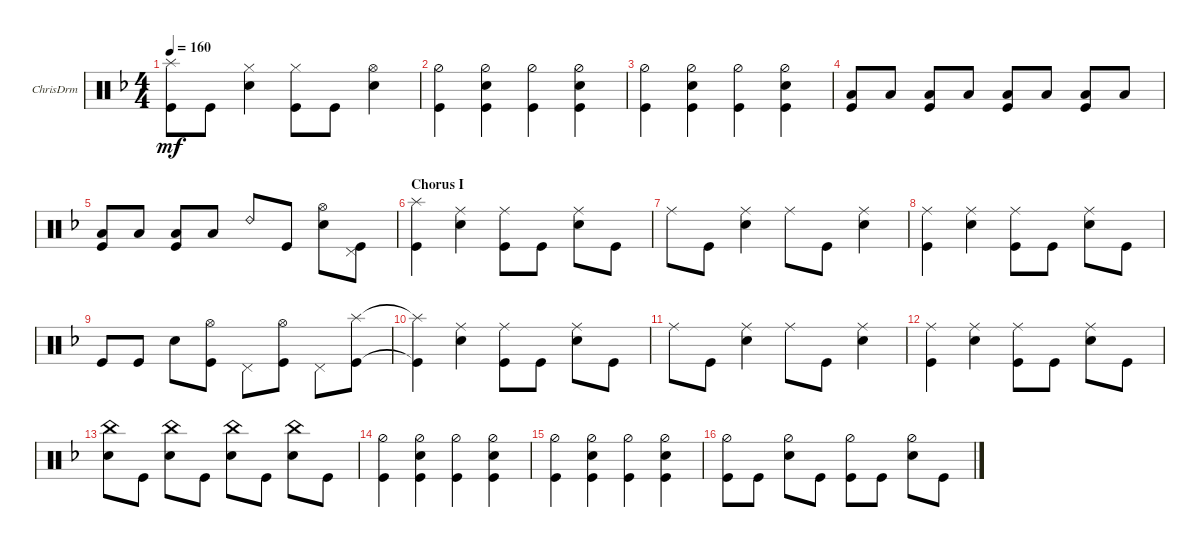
\defaultSystemsLayout 4
\bracketExtendMode groupsimilarinstruments
\firstSystemTrackNameOrientation horizontal
\otherSystemsTrackNameOrientation horizontal
\track ("Drumkit" "ChrisDrm") {instrument percussion}
\staff {score}
\articulation defaults
\ts (4 4)
\tempo 160
\clef neutral
\ks dminor
("Kick (hit)"{t} "Splash (hit)"{t}).8{dy mf} "Kick (hit)".8 ("Snare (hit) 2" "Hi-Hat (closed)").4 ("Kick (hit)" "Hi-Hat (closed)").8 "Kick (hit)".8 ("Snare (hit) 2" "Hi-Hat (open)").4 |
("Hi-Hat (half)" "Kick (hit)").4 ("Hi-Hat (half)" "Snare (hit) 2" "Kick (hit)").4 ("Hi-Hat (half)" "Kick (hit)").4 ("Hi-Hat (half)" "Snare (hit) 2" "Kick (hit)").4 |
("Hi-Hat (half)" "Kick (hit)").4 ("Hi-Hat (half)" "Kick (hit)" "Snare (hit) 2").4 ("Hi-Hat (half)" "Kick (hit)").4 ("Hi-Hat (half)" "Kick (hit)" "Snare (hit) 2").4 |
("Kick (hit)" "Low Tom (hit)").8 "Low Tom (hit)".8 ("Low Tom (hit)" "Kick (hit)").8 "Low Tom (hit)".8 ("Low Tom (hit)" "Kick (hit)").8 "Low Tom (hit)".8 ("Low Tom (hit)" "Kick (hit)").8 "Low Tom (hit)".8 |
("Kick (hit)" "Low Tom (hit)").8 "Low Tom (hit)".8 ("Low Tom (hit)" "Kick (hit)").8 "Low Tom (hit)".8 "Ride (bell) 2".8 "Kick (hit)".8 ("Snare (hit) 2" "Hi-Hat (open)").8 ("Kick (hit)" "Pedal Hi-Hat (hit)").8 |
\section ("" "Chorus I")
("Splash (hit)" "Kick (hit)").4 ("Snare (hit) 2" "Ride (middle)").4 ("Kick (hit)" "Ride (middle)").8 "Kick (hit)".8 ("Snare (hit) 2" "Ride (middle)").8 "Kick (hit)".8 |
"Ride (middle)".8 "Kick (hit)".8 ("Snare (hit) 2" "Ride (middle)").4 "Ride (middle)".8 "Kick (hit)".8 ("Snare (hit) 2" "Ride (middle)").4 |
("Ride (middle)" "Kick (hit)").4 ("Snare (hit) 2" "Ride (middle)").4 ("Ride (middle)" "Kick (hit)").8 "Kick (hit)".8 ("Snare (hit) 2" "Ride (middle)").8 "Kick (hit)".8 |
"Kick (hit)".8 "Kick (hit)".8 "Snare (hit) 2".8 ("Kick (hit)" "Hi-Hat (open)").8 "Pedal Hi-Hat (hit)".8 ("Kick (hit)" "Hi-Hat (open)").8 "Pedal Hi-Hat (hit)".8 ("Kick (hit)" "Splash (hit)").8 |
("Kick (hit)"{t} "Splash (hit)"{t}).4 ("Snare (hit) 2" "Ride (middle)").4 ("Ride (middle)" "Kick (hit)").8 "Kick (hit)".8 ("Snare (hit) 2" "Ride (middle)").8 "Kick (hit)".8 |
"Ride (middle)".8 "Kick (hit)".8 ("Snare (hit) 2" "Ride (middle)").4 "Ride (middle)".8 "Kick (hit)".8 ("Snare (hit) 2" "Ride (middle)").4 |
("Ride (middle)" "Kick (hit)").4 ("Snare (hit) 2" "Ride (middle)").4 ("Ride (middle)" "Kick (hit)").8 "Kick (hit)".8 ("Snare (hit) 2" "Ride (middle)").8 "Kick (hit)".8 |
("Snare (hit) 2" "China (hit)").8 "Kick (hit)".8 ("Snare (hit) 2" "China (hit)").8 "Kick (hit)".8 ("Snare (hit) 2" "China (hit)").8 "Kick (hit)".8 ("Snare (hit) 2" "China (hit)").8 "Kick (hit)".8 |
("Hi-Hat (half)" "Kick (hit)").4 ("Hi-Hat (half)" "Snare (hit) 2" "Kick (hit)").4 ("Hi-Hat (half)" "Kick (hit)").4 ("Hi-Hat (half)" "Snare (hit) 2" "Kick (hit)").4 |
("Hi-Hat (half)" "Kick (hit)").4 ("Hi-Hat (half)" "Kick (hit)" "Snare (hit) 2").4 ("Hi-Hat (half)" "Kick (hit)").4 ("Hi-Hat (half)" "Kick (hit)" "Snare (hit) 2").4 |
("Kick (hit)" "Hi-Hat (half)").8 "Kick (hit)".8 ("Snare (hit) 2" "Hi-Hat (half)").8 "Kick (hit)".8 ("Kick (hit)" "Hi-Hat (half)").8 "Kick (hit)".8 ("Snare (hit) 2" "Hi-Hat (half)").8 "Kick (hit)".8
